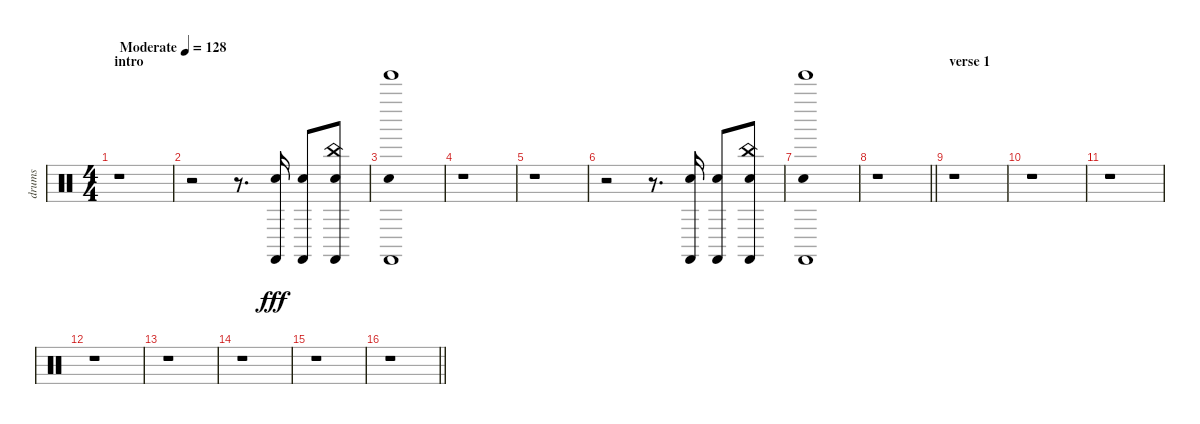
\track ("drums" "drums") {instrument percussion}
\staff {score}
\articulation defaults
\ts (4 4)
\section ("" "intro")
\tempo (128 "Moderate")
\clef neutral
\ks c
r.1{dy fff} |
r.2 r.8{d} ("Castanets (hit)" "Snare (hit) 2").16{balance 16} ("Castanets (hit)" "Snare (hit) 2").8{balance 0} ("China (hit)" "Castanets (hit)" "Snare (hit) 2").8{balance 16} |
("Metronome (bell)" "Tinkle Bell (hit)" "Castanets (hit)").1{balance 8} |
r.1 |
r.1 |
r.2 r.8{d} ("Castanets (hit)" "Snare (hit) 2").16{balance 16} ("Castanets (hit)" "Snare (hit) 2").8{balance 0} ("China (hit)" "Castanets (hit)" "Snare (hit) 2").8{balance 16} |
("Metronome (bell)" "Tinkle Bell (hit)" "Castanets (hit)").1{balance 8} |
\barLineRight lightlight
r.1 |
\section ("" "verse 1")
r.1 |
r.1 |
r.1 |
r.1 |
r.1 |
r.1 |
r.1 |
\barLineRight lightlight
r.1
